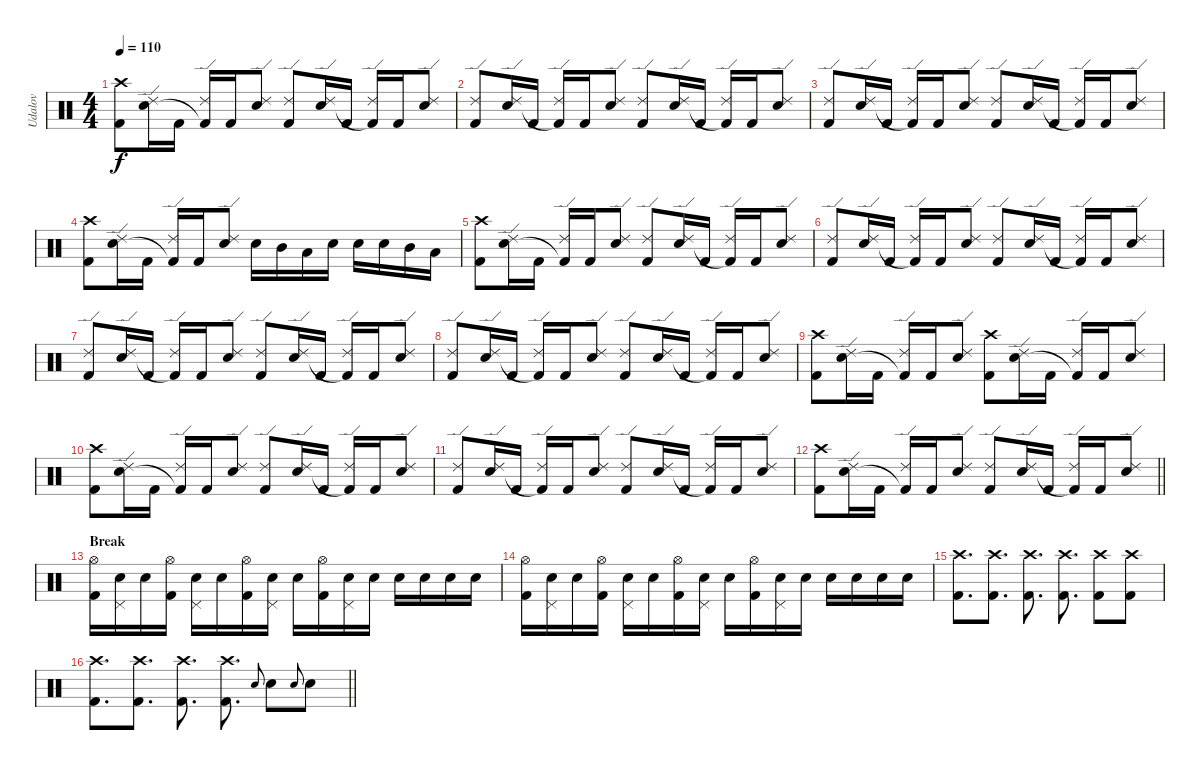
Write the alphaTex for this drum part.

\track ("Udalov" "Udalov") {instrument percussion}
\staff {score}
\articulation defaults
\ts (4 4)
\tempo 110
\clef neutral
\ks c
("Crash high (hit)" "Kick (hit) 2").8{dy f} ("Ride (edge) 2" "Snare (hit) 2").16 "Kick (hit) 2".16 ("Ride (edge) 2" "Kick (hit) 2"{t}).16 "Kick (hit) 2".16 ("Ride (edge) 2" "Snare (hit) 2").8 ("Ride (edge) 2" "Kick (hit) 2").8 ("Ride (edge) 2" "Snare (hit) 2").16 "Kick (hit) 2".16 ("Ride (edge) 2" "Kick (hit) 2"{t}).16 "Kick (hit) 2".16 ("Ride (edge) 2" "Snare (hit) 2").8 |
("Ride (edge) 2" "Kick (hit) 2").8 ("Ride (edge) 2" "Snare (hit) 2").16 "Kick (hit) 2".16 ("Ride (edge) 2" "Kick (hit) 2"{t}).16 "Kick (hit) 2".16 ("Ride (edge) 2" "Snare (hit) 2").8 ("Ride (edge) 2" "Kick (hit) 2").8 ("Ride (edge) 2" "Snare (hit) 2").16 "Kick (hit) 2".16 ("Ride (edge) 2" "Kick (hit) 2"{t}).16 "Kick (hit) 2".16 ("Ride (edge) 2" "Snare (hit) 2").8 |
("Ride (edge) 2" "Kick (hit) 2").8 ("Ride (edge) 2" "Snare (hit) 2").16 "Kick (hit) 2".16 ("Ride (edge) 2" "Kick (hit) 2"{t}).16 "Kick (hit) 2".16 ("Ride (edge) 2" "Snare (hit) 2").8 ("Ride (edge) 2" "Kick (hit) 2").8 ("Ride (edge) 2" "Snare (hit) 2").16 "Kick (hit) 2".16 ("Ride (edge) 2" "Kick (hit) 2"{t}).16 "Kick (hit) 2".16 ("Ride (edge) 2" "Snare (hit) 2").8 |
("Crash high (hit)" "Kick (hit) 2").8 ("Ride (edge) 2" "Snare (hit) 2").16 "Kick (hit) 2".16 ("Ride (edge) 2" "Kick (hit) 2"{t}).16 "Kick (hit) 2".16 ("Ride (edge) 2" "Snare (hit) 2").8 "Snare (hit) 2".16 "Mid Tom (hit)".16 "Low Tom (hit)".16 "Snare (hit) 2".16 "Snare (hit) 2".16 "Snare (hit) 2".16 "Mid Tom (hit)".16 "Low Tom (hit)".16 |
("Crash high (hit)" "Kick (hit) 2").8 ("Ride (edge) 2" "Snare (hit) 2").16 "Kick (hit) 2".16 ("Ride (edge) 2" "Kick (hit) 2"{t}).16 "Kick (hit) 2".16 ("Ride (edge) 2" "Snare (hit) 2").8 ("Ride (edge) 2" "Kick (hit) 2").8 ("Ride (edge) 2" "Snare (hit) 2").16 "Kick (hit) 2".16 ("Ride (edge) 2" "Kick (hit) 2"{t}).16 "Kick (hit) 2".16 ("Ride (edge) 2" "Snare (hit) 2").8 |
("Ride (edge) 2" "Kick (hit) 2").8 ("Ride (edge) 2" "Snare (hit) 2").16 "Kick (hit) 2".16 ("Ride (edge) 2" "Kick (hit) 2"{t}).16 "Kick (hit) 2".16 ("Ride (edge) 2" "Snare (hit) 2").8 ("Ride (edge) 2" "Kick (hit) 2").8 ("Ride (edge) 2" "Snare (hit) 2").16 "Kick (hit) 2".16 ("Ride (edge) 2" "Kick (hit) 2"{t}).16 "Kick (hit) 2".16 ("Ride (edge) 2" "Snare (hit) 2").8 |
("Ride (edge) 2" "Kick (hit) 2").8 ("Ride (edge) 2" "Snare (hit) 2").16 "Kick (hit) 2".16 ("Ride (edge) 2" "Kick (hit) 2"{t}).16 "Kick (hit) 2".16 ("Ride (edge) 2" "Snare (hit) 2").8 ("Ride (edge) 2" "Kick (hit) 2").8 ("Ride (edge) 2" "Snare (hit) 2").16 "Kick (hit) 2".16 ("Ride (edge) 2" "Kick (hit) 2"{t}).16 "Kick (hit) 2".16 ("Ride (edge) 2" "Snare (hit) 2").8 |
("Ride (edge) 2" "Kick (hit) 2").8 ("Ride (edge) 2" "Snare (hit) 2").16 "Kick (hit) 2".16 ("Ride (edge) 2" "Kick (hit) 2"{t}).16 "Kick (hit) 2".16 ("Ride (edge) 2" "Snare (hit) 2").8 ("Ride (edge) 2" "Kick (hit) 2").8 ("Ride (edge) 2" "Snare (hit) 2").16 "Kick (hit) 2".16 ("Ride (edge) 2" "Kick (hit) 2"{t}).16 "Kick (hit) 2".16 ("Ride (edge) 2" "Snare (hit) 2").8 |
("Crash high (hit)" "Kick (hit) 2").8 ("Ride (edge) 2" "Snare (hit) 2").16 "Kick (hit) 2".16 ("Ride (edge) 2" "Kick (hit) 2"{t}).16 "Kick (hit) 2".16 ("Ride (edge) 2" "Snare (hit) 2").8 ("Crash high (hit)" "Kick (hit) 2").8 ("Ride (edge) 2" "Snare (hit) 2").16 "Kick (hit) 2".16 ("Ride (edge) 2" "Kick (hit) 2"{t}).16 "Kick (hit) 2".16 ("Ride (edge) 2" "Snare (hit) 2").8 |
("Crash high (hit)" "Kick (hit) 2").8 ("Ride (edge) 2" "Snare (hit) 2").16 "Kick (hit) 2".16 ("Ride (edge) 2" "Kick (hit) 2"{t}).16 "Kick (hit) 2".16 ("Ride (edge) 2" "Snare (hit) 2").8 ("Ride (edge) 2" "Kick (hit) 2").8 ("Ride (edge) 2" "Snare (hit) 2").16 "Kick (hit) 2".16 ("Ride (edge) 2" "Kick (hit) 2"{t}).16 "Kick (hit) 2".16 ("Ride (edge) 2" "Snare (hit) 2").8 |
("Ride (edge) 2" "Kick (hit) 2").8 ("Ride (edge) 2" "Snare (hit) 2").16 "Kick (hit) 2".16 ("Ride (edge) 2" "Kick (hit) 2"{t}).16 "Kick (hit) 2".16 ("Ride (edge) 2" "Snare (hit) 2").8 ("Ride (edge) 2" "Kick (hit) 2").8 ("Ride (edge) 2" "Snare (hit) 2").16 "Kick (hit) 2".16 ("Ride (edge) 2" "Kick (hit) 2"{t}).16 "Kick (hit) 2".16 ("Ride (edge) 2" "Snare (hit) 2").8 |
\barLineRight lightlight
("Crash high (hit)" "Kick (hit) 2").8 ("Ride (edge) 2" "Snare (hit) 2").16 "Kick (hit) 2".16 ("Ride (edge) 2" "Kick (hit) 2"{t}).16 "Kick (hit) 2".16 ("Ride (edge) 2" "Snare (hit) 2").8 ("Ride (edge) 2" "Kick (hit) 2").8 ("Ride (edge) 2" "Snare (hit) 2").16 "Kick (hit) 2".16 ("Ride (edge) 2" "Kick (hit) 2"{t}).16 "Kick (hit) 2".16 ("Ride (edge) 2" "Snare (hit) 2").8 |
\section ("" "Break")
("Hi-Hat (open)" "Kick (hit) 2").16 ("Snare (hit) 2" "Pedal Hi-Hat (hit)").16 "Snare (hit) 2".16 ("Hi-Hat (open)" "Kick (hit) 2").16 ("Snare (hit) 2" "Pedal Hi-Hat (hit)").16 "Snare (hit) 2".16 ("Hi-Hat (open)" "Kick (hit) 2").16 ("Snare (hit) 2" "Pedal Hi-Hat (hit)").16 "Snare (hit) 2".16 ("Hi-Hat (open)" "Kick (hit) 2").16 ("Snare (hit) 2" "Pedal Hi-Hat (hit)").16 "Snare (hit) 2".16 "Snare (hit) 2".16 "Snare (hit) 2".16 "Snare (hit) 2".16 "Snare (hit) 2".16 |
("Hi-Hat (open)" "Kick (hit) 2").16 ("Snare (hit) 2" "Pedal Hi-Hat (hit)").16 "Snare (hit) 2".16 ("Hi-Hat (open)" "Kick (hit) 2").16 ("Snare (hit) 2" "Pedal Hi-Hat (hit)").16 "Snare (hit) 2".16 ("Hi-Hat (open)" "Kick (hit) 2").16 ("Snare (hit) 2" "Pedal Hi-Hat (hit)").16 "Snare (hit) 2".16 ("Hi-Hat (open)" "Kick (hit) 2").16 ("Snare (hit) 2" "Pedal Hi-Hat (hit)").16 "Snare (hit) 2".16 "Snare (hit) 2".16 "Snare (hit) 2".16 "Snare (hit) 2".16 "Snare (hit) 2".16 |
("Crash high (hit)" "Kick (hit) 2").8{d} ("Crash high (hit)" "Kick (hit) 2").8{d} ("Crash high (hit)" "Kick (hit) 2").8{d} ("Crash high (hit)" "Kick (hit) 2").8{d} ("Crash high (hit)" "Kick (hit) 2").8 ("Crash high (hit)" "Kick (hit) 2").8 |
\barLineRight lightlight
("Crash high (hit)" "Kick (hit) 2").8{d} ("Crash high (hit)" "Kick (hit) 2").8{d} ("Crash high (hit)" "Kick (hit) 2").8{d} ("Crash high (hit)" "Kick (hit) 2").8{d} "Snare (hit) 2".8{gr onbeat} "Snare (hit) 2".8 "Snare (hit) 2".8{gr onbeat} "Snare (hit) 2".8
